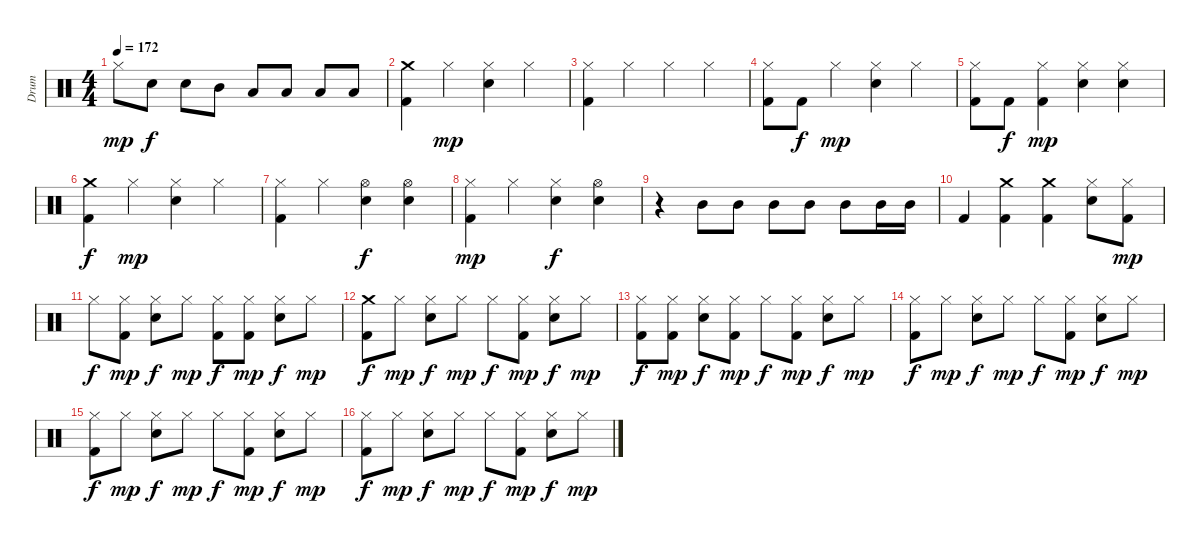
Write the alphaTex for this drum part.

\track ("Drum" "Drum") {instrument percussion}
\staff {score}
\articulation defaults
\ts (4 4)
\tempo 172
\clef neutral
\ks c "Hi-Hat (closed)".8{dy mp} "Electric Snare (hit)".8{dy f} "Electric Snare (hit)".8 "Mid Tom (hit)".8 "Low Tom (hit)".8 "Low Tom (hit)".8 "Low Floor Tom (hit)".8 "Low Floor Tom (hit)".8
|
("Crash medium (hit)" "Kick (hit) 2").4 "Hi-Hat (closed)".4{dy mp} ("Hi-Hat (closed)" "Electric Snare (hit)").4 "Hi-Hat (closed)".4 |
("Hi-Hat (closed)" "Kick (hit) 2").4 "Hi-Hat (closed)".4 "Hi-Hat (closed)".4 "Hi-Hat (closed)".4 |
("Hi-Hat (closed)" "Kick (hit) 2").8 "Kick (hit) 2".8{dy f} "Hi-Hat (closed)".4{dy mp} ("Hi-Hat (closed)" "Electric Snare (hit)").4 "Hi-Hat (closed)".4 |
("Hi-Hat (closed)" "Kick (hit) 2").8 "Kick (hit) 2".8{dy f} ("Hi-Hat (closed)" "Kick (hit) 2").4{dy mp} ("Hi-Hat (closed)" "Electric Snare (hit)").4 ("Hi-Hat (closed)" "Electric Snare (hit)").4 |
("Crash medium (hit)" "Kick (hit) 2").4{dy f} "Hi-Hat (closed)".4{dy mp} ("Hi-Hat (closed)" "Electric Snare (hit)").4 "Hi-Hat (closed)".4 |
("Hi-Hat (closed)" "Kick (hit) 2").4 "Hi-Hat (closed)".4 ("Hi-Hat (open)" "Electric Snare (hit)").4{dy f} ("Hi-Hat (open)" "Electric Snare (hit)").4 |
("Hi-Hat (closed)" "Kick (hit) 2").4{dy mp} "Hi-Hat (closed)".4 ("Hi-Hat (closed)" "Electric Snare (hit)").4{dy f} ("Hi-Hat (open)" "Electric Snare (hit)").4 |
r.4 "Mid Tom (hit)".8 "Mid Tom (hit)".8 "Mid Tom (hit)".8 "Mid Tom (hit)".8 "Mid Tom (hit)".8 "Mid Tom (hit)".16 "Mid Tom (hit)".16 |
"Kick (hit) 2".4 ("Crash medium (hit)" "Kick (hit) 2").4 ("Crash medium (hit)" "Kick (hit) 2").4 ("Hi-Hat (closed)" "Electric Snare (hit)").8 ("Hi-Hat (closed)" "Kick (hit) 2").8{dy mp} |
"Hi-Hat (closed)".8{dy f} ("Hi-Hat (closed)" "Kick (hit) 2").8{dy mp} ("Hi-Hat (closed)" "Electric Snare (hit)").8{dy f} "Hi-Hat (closed)".8{dy mp} ("Hi-Hat (closed)" "Kick (hit) 2").8{dy f} ("Hi-Hat (closed)" "Kick (hit) 2").8{dy mp} ("Hi-Hat (closed)" "Electric Snare (hit)").8{dy f} "Hi-Hat (closed)".8{dy mp} |
("Crash medium (hit)" "Kick (hit) 2").8{dy f} "Hi-Hat (closed)".8{dy mp} ("Hi-Hat (closed)" "Electric Snare (hit)").8{dy f} "Hi-Hat (closed)".8{dy mp} "Hi-Hat (closed)".8{dy f} ("Hi-Hat (closed)" "Kick (hit) 2").8{dy mp} ("Hi-Hat (closed)" "Electric Snare (hit)").8{dy f} "Hi-Hat (closed)".8{dy mp} |
("Hi-Hat (closed)" "Kick (hit) 2").8{dy f} ("Hi-Hat (closed)" "Kick (hit) 2").8{dy mp} ("Hi-Hat (closed)" "Electric Snare (hit)").8{dy f} ("Hi-Hat (closed)" "Kick (hit) 2").8{dy mp} "Hi-Hat (closed)".8{dy f} ("Hi-Hat (closed)" "Kick (hit) 2").8{dy mp} ("Hi-Hat (closed)" "Electric Snare (hit)").8{dy f} "Hi-Hat (closed)".8{dy mp} |
("Hi-Hat (closed)" "Kick (hit) 2").8{dy f} "Hi-Hat (closed)".8{dy mp} ("Hi-Hat (closed)" "Electric Snare (hit)").8{dy f} "Hi-Hat (closed)".8{dy mp} "Hi-Hat (closed)".8{dy f} ("Hi-Hat (closed)" "Kick (hit) 2").8{dy mp} ("Hi-Hat (closed)" "Electric Snare (hit)").8{dy f} "Hi-Hat (closed)".8{dy mp} |
("Hi-Hat (closed)" "Kick (hit) 2").8{dy f} "Hi-Hat (closed)".8{dy mp} ("Hi-Hat (closed)" "Electric Snare (hit)").8{dy f} "Hi-Hat (closed)".8{dy mp} "Hi-Hat (closed)".8{dy f} ("Hi-Hat (closed)" "Kick (hit) 2").8{dy mp} ("Hi-Hat (closed)" "Electric Snare (hit)").8{dy f} "Hi-Hat (closed)".8{dy mp} |
("Hi-Hat (closed)" "Kick (hit) 2").8{dy f} "Hi-Hat (closed)".8{dy mp} ("Hi-Hat (closed)" "Electric Snare (hit)").8{dy f} "Hi-Hat (closed)".8{dy mp} "Hi-Hat (closed)".8{dy f} ("Hi-Hat (closed)" "Kick (hit) 2").8{dy mp} ("Hi-Hat (closed)" "Electric Snare (hit)").8{dy f} "Hi-Hat (closed)".8{dy mp}
